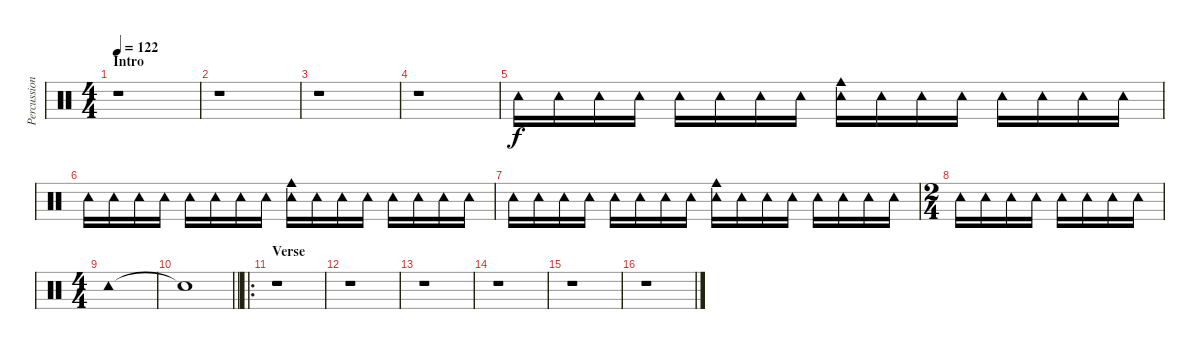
\track ("Percussion" "Percussion") {instrument percussion}
\staff {score}
\articulation defaults
\ts (4 4)
\section ("" "Intro")
\tempo 122
\clef neutral
\ks c
r.1{dy f} |
r.1 |
r.1 |
r.1 |
"Tambourine (hit)".16 "Tambourine (hit)".16 "Tambourine (hit)".16 "Tambourine (hit)".16 "Tambourine (hit)".16 "Tambourine (hit)".16 "Tambourine (hit)".16 "Tambourine (hit)".16 ("Tambourine (hit)" "Cowbell medium (hit)").16 "Tambourine (hit)".16 "Tambourine (hit)".16 "Tambourine (hit)".16 "Tambourine (hit)".16 "Tambourine (hit)".16 "Tambourine (hit)".16 "Tambourine (hit)".16 |
"Tambourine (hit)".16 "Tambourine (hit)".16 "Tambourine (hit)".16 "Tambourine (hit)".16 "Tambourine (hit)".16 "Tambourine (hit)".16 "Tambourine (hit)".16 "Tambourine (hit)".16 ("Tambourine (hit)" "Cowbell medium (hit)").16 "Tambourine (hit)".16 "Tambourine (hit)".16 "Tambourine (hit)".16 "Tambourine (hit)".16 "Tambourine (hit)".16 "Tambourine (hit)".16 "Tambourine (hit)".16 |
"Tambourine (hit)".16 "Tambourine (hit)".16 "Tambourine (hit)".16 "Tambourine (hit)".16 "Tambourine (hit)".16 "Tambourine (hit)".16 "Tambourine (hit)".16 "Tambourine (hit)".16 ("Tambourine (hit)" "Cowbell medium (hit)").16 "Tambourine (hit)".16 "Tambourine (hit)".16 "Tambourine (hit)".16 "Tambourine (hit)".16 "Tambourine (hit)".16 "Tambourine (hit)".16 "Tambourine (hit)".16 |
\ts (2 4)
"Tambourine (hit)".16 "Tambourine (hit)".16 "Tambourine (hit)".16 "Tambourine (hit)".16 "Tambourine (hit)".16 "Tambourine (hit)".16 "Tambourine (hit)".16 "Tambourine (hit)".16 |
\ts (4 4)
"Tambourine (hit)".1 |
\barLineRight lightlight "Snare (hit)"{t}.1
|
\ro
\section ("" "Verse")
r.1 |
r.1 |
r.1 |
r.1 |
r.1 |
r.1
